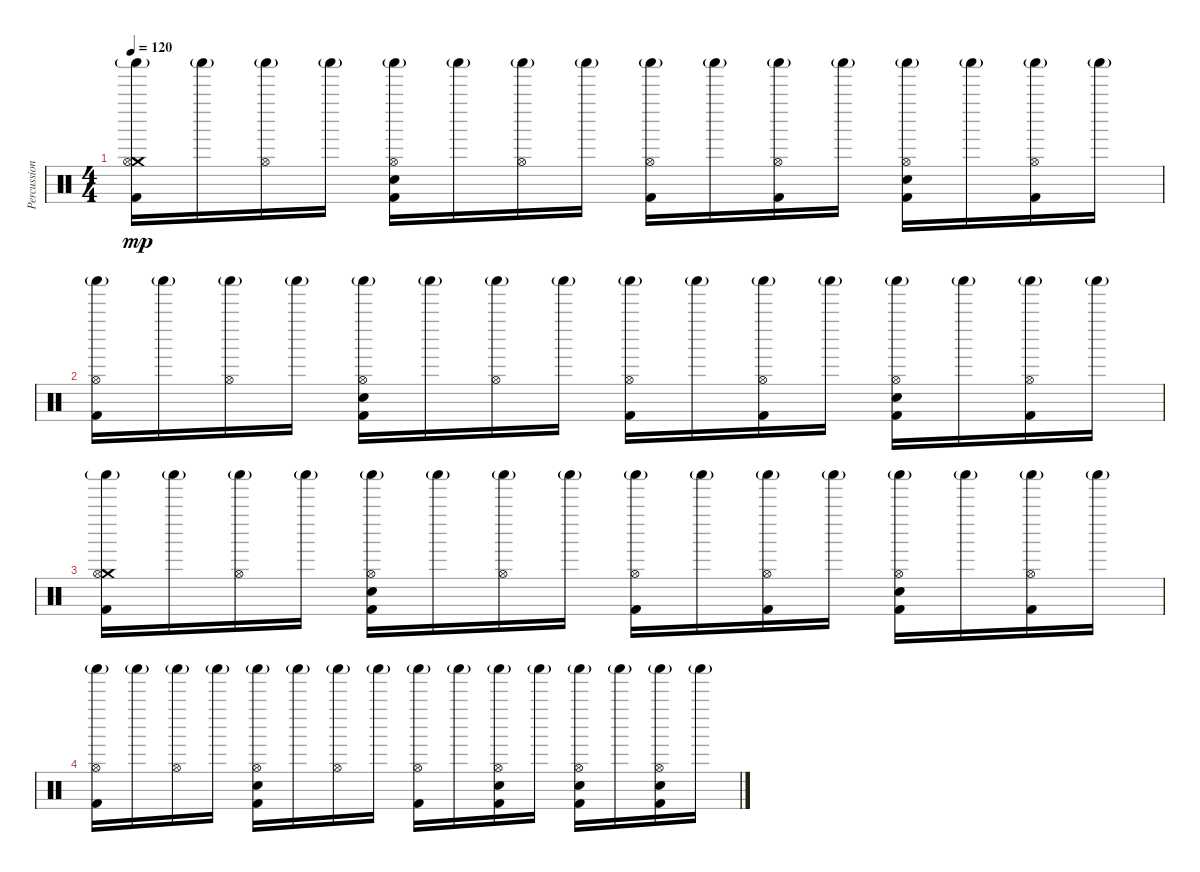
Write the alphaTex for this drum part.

\track ("Percussions" "Percussion") {instrument percussion}
\staff {score}
\articulation defaults
\ts (4 4)
\tempo 120
\clef neutral
\ks c
("Crash medium (hit)" "Hi-Hat (open)" "Shaker (hit)"{g} "Kick (hit) 2").16{dy mp} "Shaker (hit)"{g}.16 ("Hi-Hat (open)" "Shaker (hit)"{g}).16 "Shaker (hit)"{g}.16 ("Hi-Hat (open)" "Electric Snare (hit)" "Shaker (hit)"{g} "Kick (hit) 2").16 "Shaker (hit)"{g}.16 ("Hi-Hat (open)" "Shaker (hit)"{g}).16 "Shaker (hit)"{g}.16 ("Hi-Hat (open)" "Shaker (hit)"{g} "Kick (hit) 2").16 "Shaker (hit)"{g}.16 ("Hi-Hat (open)" "Shaker (hit)"{g} "Kick (hit) 2").16 "Shaker (hit)"{g}.16 ("Hi-Hat (open)" "Electric Snare (hit)" "Shaker (hit)"{g} "Kick (hit) 2").16 "Shaker (hit)"{g}.16 ("Hi-Hat (open)" "Shaker (hit)"{g} "Kick (hit) 2").16 "Shaker (hit)"{g}.16 |
("Hi-Hat (open)" "Shaker (hit)"{g} "Kick (hit) 2").16 "Shaker (hit)"{g}.16 ("Hi-Hat (open)" "Shaker (hit)"{g}).16 "Shaker (hit)"{g}.16 ("Hi-Hat (open)" "Electric Snare (hit)" "Shaker (hit)"{g} "Kick (hit) 2").16 "Shaker (hit)"{g}.16 ("Hi-Hat (open)" "Shaker (hit)"{g}).16 "Shaker (hit)"{g}.16 ("Hi-Hat (open)" "Shaker (hit)"{g} "Kick (hit) 2").16 "Shaker (hit)"{g}.16 ("Hi-Hat (open)" "Shaker (hit)"{g} "Kick (hit) 2").16 "Shaker (hit)"{g}.16 ("Hi-Hat (open)" "Electric Snare (hit)" "Shaker (hit)"{g} "Kick (hit) 2").16 "Shaker (hit)"{g}.16 ("Hi-Hat (open)" "Shaker (hit)"{g} "Kick (hit) 2").16 "Shaker (hit)"{g}.16 |
("Crash medium (hit)" "Hi-Hat (open)" "Shaker (hit)"{g} "Kick (hit) 2").16 "Shaker (hit)"{g}.16 ("Hi-Hat (open)" "Shaker (hit)"{g}).16 "Shaker (hit)"{g}.16 ("Hi-Hat (open)" "Electric Snare (hit)" "Shaker (hit)"{g} "Kick (hit) 2").16 "Shaker (hit)"{g}.16 ("Hi-Hat (open)" "Shaker (hit)"{g}).16 "Shaker (hit)"{g}.16 ("Hi-Hat (open)" "Shaker (hit)"{g} "Kick (hit) 2").16 "Shaker (hit)"{g}.16 ("Hi-Hat (open)" "Shaker (hit)"{g} "Kick (hit) 2").16 "Shaker (hit)"{g}.16 ("Hi-Hat (open)" "Electric Snare (hit)" "Shaker (hit)"{g} "Kick (hit) 2").16 "Shaker (hit)"{g}.16 ("Hi-Hat (open)" "Shaker (hit)"{g} "Kick (hit) 2").16 "Shaker (hit)"{g}.16 |
("Hi-Hat (open)" "Shaker (hit)"{g} "Kick (hit) 2").16 "Shaker (hit)"{g}.16 ("Hi-Hat (open)" "Shaker (hit)"{g}).16 "Shaker (hit)"{g}.16 ("Hi-Hat (open)" "Electric Snare (hit)" "Shaker (hit)"{g} "Kick (hit) 2").16 "Shaker (hit)"{g}.16 ("Hi-Hat (open)" "Shaker (hit)"{g}).16 "Shaker (hit)"{g}.16 ("Hi-Hat (open)" "Shaker (hit)"{g} "Kick (hit) 2").16 "Shaker (hit)"{g}.16 ("Hi-Hat (open)" "Electric Snare (hit)" "Shaker (hit)"{g} "Kick (hit) 2").16 "Shaker (hit)"{g}.16 ("Hi-Hat (open)" "Electric Snare (hit)" "Shaker (hit)"{g} "Kick (hit) 2").16 "Shaker (hit)"{g}.16 ("Hi-Hat (open)" "Electric Snare (hit)" "Shaker (hit)"{g} "Kick (hit) 2").16 "Shaker (hit)"{g}.16
